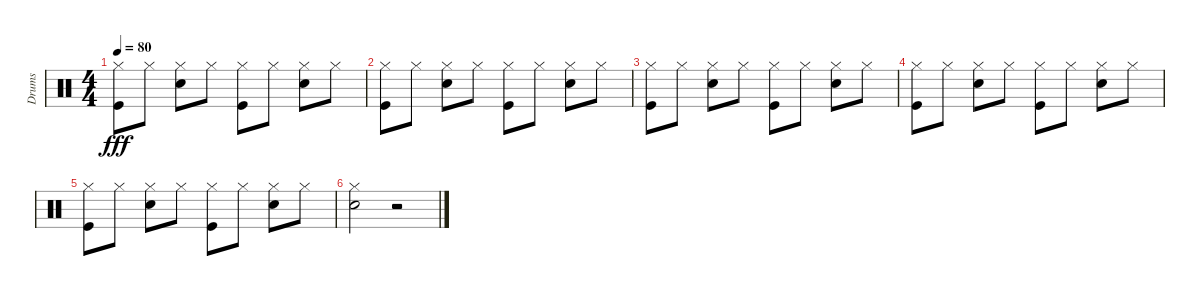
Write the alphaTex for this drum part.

\track ("Drums" "Drums") {instrument percussion}
\staff {score}
\articulation defaults
\ts (4 4)
\tempo 80
\clef neutral
\ks c
("Hi-Hat (closed)" "Kick (hit)").8{dy fff} "Hi-Hat (closed)".8 ("Hi-Hat (closed)" "Snare (hit) 2").8 "Hi-Hat (closed)".8 ("Hi-Hat (closed)" "Kick (hit)").8 "Hi-Hat (closed)".8 ("Hi-Hat (closed)" "Snare (hit) 2").8 "Hi-Hat (closed)".8 |
("Hi-Hat (closed)" "Kick (hit)").8 "Hi-Hat (closed)".8 ("Hi-Hat (closed)" "Snare (hit) 2").8 "Hi-Hat (closed)".8 ("Hi-Hat (closed)" "Kick (hit)").8 "Hi-Hat (closed)".8 ("Hi-Hat (closed)" "Snare (hit) 2").8 "Hi-Hat (closed)".8 |
("Hi-Hat (closed)" "Kick (hit)").8 "Hi-Hat (closed)".8 ("Hi-Hat (closed)" "Snare (hit) 2").8 "Hi-Hat (closed)".8 ("Hi-Hat (closed)" "Kick (hit)").8 "Hi-Hat (closed)".8 ("Hi-Hat (closed)" "Snare (hit) 2").8 "Hi-Hat (closed)".8 |
("Hi-Hat (closed)" "Kick (hit)").8 "Hi-Hat (closed)".8 ("Hi-Hat (closed)" "Snare (hit) 2").8 "Hi-Hat (closed)".8 ("Hi-Hat (closed)" "Kick (hit)").8 "Hi-Hat (closed)".8 ("Hi-Hat (closed)" "Snare (hit) 2").8 "Hi-Hat (closed)".8 |
("Hi-Hat (closed)" "Kick (hit)").8 "Hi-Hat (closed)".8 ("Hi-Hat (closed)" "Snare (hit) 2").8 "Hi-Hat (closed)".8 ("Hi-Hat (closed)" "Kick (hit)").8 "Hi-Hat (closed)".8 ("Hi-Hat (closed)" "Snare (hit) 2").8 "Hi-Hat (closed)".8 |
("Hi-Hat (closed)" "Snare (hit) 2").2 r.2
